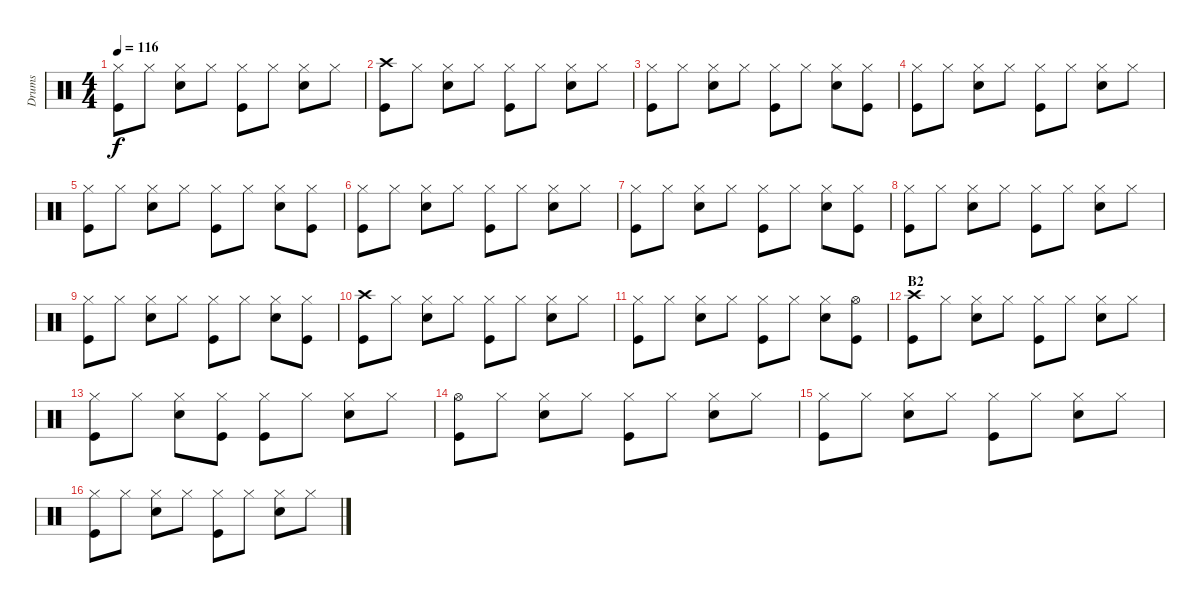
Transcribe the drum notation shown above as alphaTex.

\track ("Drums" "Drums") {instrument percussion}
\staff {score}
\articulation defaults
\ts (4 4)
\tempo 116
\clef neutral
\ks c
("Hi-Hat (closed)" "Kick (hit)").8{dy f} "Hi-Hat (closed)".8 ("Hi-Hat (closed)" "Snare (hit) 2").8 "Hi-Hat (closed)".8 ("Hi-Hat (closed)" "Kick (hit)").8 "Hi-Hat (closed)".8 ("Hi-Hat (closed)" "Snare (hit) 2").8 "Hi-Hat (closed)".8 |
("Crash high (hit)" "Kick (hit)").8 "Hi-Hat (closed)".8 ("Hi-Hat (closed)" "Snare (hit) 2").8 "Hi-Hat (closed)".8 ("Hi-Hat (closed)" "Kick (hit)").8 "Hi-Hat (closed)".8 ("Hi-Hat (closed)" "Snare (hit) 2").8 "Hi-Hat (closed)".8 |
("Hi-Hat (closed)" "Kick (hit)").8 "Hi-Hat (closed)".8 ("Hi-Hat (closed)" "Snare (hit) 2").8 "Hi-Hat (closed)".8 ("Hi-Hat (closed)" "Kick (hit)").8 "Hi-Hat (closed)".8 ("Hi-Hat (closed)" "Snare (hit) 2").8 ("Hi-Hat (closed)" "Kick (hit)").8 |
("Hi-Hat (closed)" "Kick (hit)").8 "Hi-Hat (closed)".8 ("Hi-Hat (closed)" "Snare (hit) 2").8 "Hi-Hat (closed)".8 ("Hi-Hat (closed)" "Kick (hit)").8 "Hi-Hat (closed)".8 ("Hi-Hat (closed)" "Snare (hit) 2").8 "Hi-Hat (closed)".8 |
("Hi-Hat (closed)" "Kick (hit)").8 "Hi-Hat (closed)".8 ("Hi-Hat (closed)" "Snare (hit) 2").8 "Hi-Hat (closed)".8 ("Hi-Hat (closed)" "Kick (hit)").8 "Hi-Hat (closed)".8 ("Hi-Hat (closed)" "Snare (hit) 2").8 ("Hi-Hat (closed)" "Kick (hit)").8 |
("Hi-Hat (closed)" "Kick (hit)").8 "Hi-Hat (closed)".8 ("Hi-Hat (closed)" "Snare (hit) 2").8 "Hi-Hat (closed)".8 ("Hi-Hat (closed)" "Kick (hit)").8 "Hi-Hat (closed)".8 ("Hi-Hat (closed)" "Snare (hit) 2").8 "Hi-Hat (closed)".8 |
("Hi-Hat (closed)" "Kick (hit)").8 "Hi-Hat (closed)".8 ("Hi-Hat (closed)" "Snare (hit) 2").8 "Hi-Hat (closed)".8 ("Hi-Hat (closed)" "Kick (hit)").8 "Hi-Hat (closed)".8 ("Hi-Hat (closed)" "Snare (hit) 2").8 ("Hi-Hat (closed)" "Kick (hit)").8 |
("Hi-Hat (closed)" "Kick (hit)").8 "Hi-Hat (closed)".8 ("Hi-Hat (closed)" "Snare (hit) 2").8 "Hi-Hat (closed)".8 ("Hi-Hat (closed)" "Kick (hit)").8 "Hi-Hat (closed)".8 ("Hi-Hat (closed)" "Snare (hit) 2").8 "Hi-Hat (closed)".8 |
("Hi-Hat (closed)" "Kick (hit)").8 "Hi-Hat (closed)".8 ("Hi-Hat (closed)" "Snare (hit) 2").8 "Hi-Hat (closed)".8 ("Hi-Hat (closed)" "Kick (hit)").8 "Hi-Hat (closed)".8 ("Hi-Hat (closed)" "Snare (hit) 2").8 ("Hi-Hat (closed)" "Kick (hit)").8 |
("Crash high (hit)" "Kick (hit)").8 "Hi-Hat (closed)".8 ("Hi-Hat (closed)" "Snare (hit) 2").8 "Hi-Hat (closed)".8 ("Hi-Hat (closed)" "Kick (hit)").8 "Hi-Hat (closed)".8 ("Hi-Hat (closed)" "Snare (hit) 2").8 "Hi-Hat (closed)".8 |
("Hi-Hat (closed)" "Kick (hit)").8 "Hi-Hat (closed)".8 ("Hi-Hat (closed)" "Snare (hit) 2").8 "Hi-Hat (closed)".8 ("Hi-Hat (closed)" "Kick (hit)").8 "Hi-Hat (closed)".8 ("Hi-Hat (closed)" "Snare (hit) 2").8 ("Hi-Hat (open)" "Kick (hit)").8 |
\section ("" "B2")
("Crash high (hit)" "Kick (hit)").8 "Hi-Hat (closed)".8 ("Hi-Hat (closed)" "Snare (hit) 2").8 "Hi-Hat (closed)".8 ("Hi-Hat (closed)" "Kick (hit)").8 "Hi-Hat (closed)".8 ("Hi-Hat (closed)" "Snare (hit) 2").8 "Hi-Hat (closed)".8 |
("Hi-Hat (closed)" "Kick (hit)").8 "Hi-Hat (closed)".8 ("Hi-Hat (closed)" "Snare (hit) 2").8 ("Hi-Hat (closed)" "Kick (hit)").8 ("Hi-Hat (closed)" "Kick (hit)").8 "Hi-Hat (closed)".8 ("Hi-Hat (closed)" "Snare (hit) 2").8 "Hi-Hat (closed)".8 |
("Hi-Hat (open)" "Kick (hit)").8 "Hi-Hat (closed)".8 ("Hi-Hat (closed)" "Snare (hit) 2").8 "Hi-Hat (closed)".8 ("Hi-Hat (closed)" "Kick (hit)").8 "Hi-Hat (closed)".8 ("Hi-Hat (closed)" "Snare (hit) 2").8 "Hi-Hat (closed)".8 |
("Hi-Hat (closed)" "Kick (hit)").8 "Hi-Hat (closed)".8 ("Hi-Hat (closed)" "Snare (hit) 2").8 "Hi-Hat (closed)".8 ("Hi-Hat (closed)" "Kick (hit)").8 "Hi-Hat (closed)".8 ("Hi-Hat (closed)" "Snare (hit) 2").8 "Hi-Hat (closed)".8 |
("Hi-Hat (closed)" "Kick (hit)").8 "Hi-Hat (closed)".8 ("Hi-Hat (closed)" "Snare (hit) 2").8 "Hi-Hat (closed)".8 ("Hi-Hat (closed)" "Kick (hit)").8 "Hi-Hat (closed)".8 ("Hi-Hat (closed)" "Snare (hit) 2").8 "Hi-Hat (closed)".8
